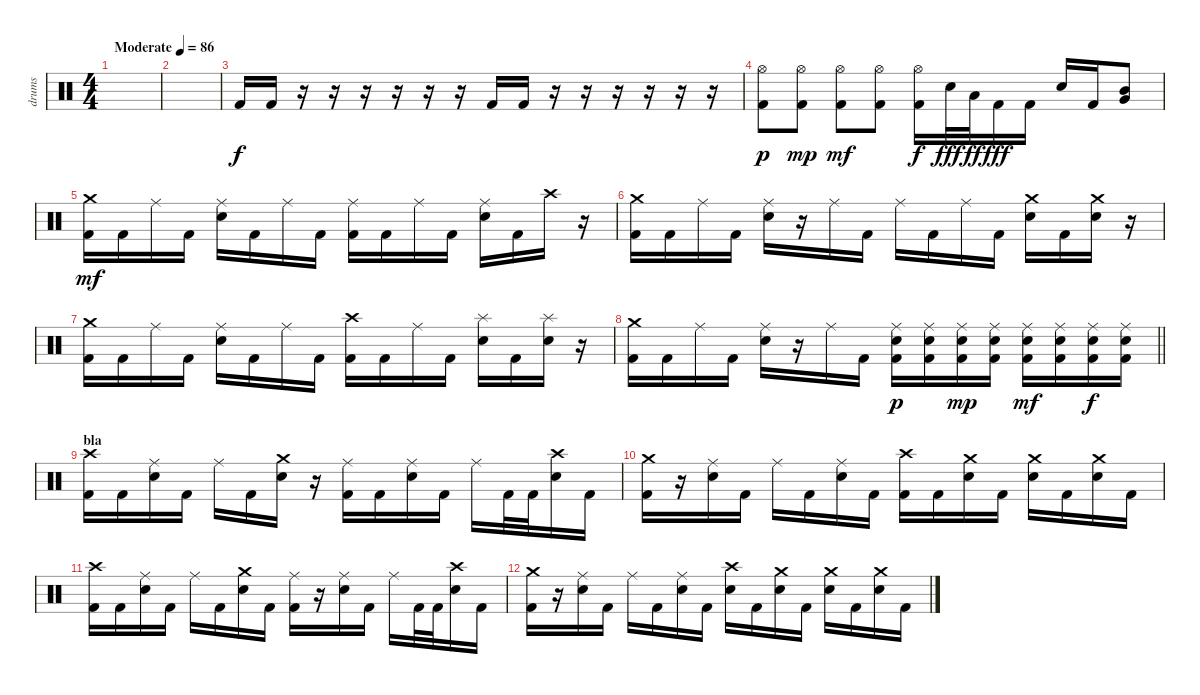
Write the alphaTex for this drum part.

\track ("drums" "drums") {instrument percussion}
\staff {score}
\articulation defaults
\ts (4 4)
\tempo (86 "Moderate")
\clef neutral
\ks c
|
|
"Kick (hit) 2".16 "Kick (hit) 2".16 r.16 r.16 r.16 r.16 r.16 r.16 "Kick (hit) 2".16 "Kick (hit) 2".16 r.16 r.16 r.16 r.16 r.16 r.16 |
("Hi-Hat (open)" "Kick (hit) 2").8{dy p} ("Hi-Hat (open)" "Kick (hit) 2").8{dy mp} ("Hi-Hat (open)" "Kick (hit) 2").8{dy mf} ("Hi-Hat (open)" "Kick (hit) 2").8 ("Hi-Hat (open)" "Kick (hit) 2").16{dy f} "Electric Snare (hit)".32{dy fff} "Low Floor Tom (hit)".32{dy ff} "Kick (hit) 2".16{dy fff} "Kick (hit) 2".16 "Electric Snare (hit)".16 "Kick (hit) 2".16 ("Mid Tom (hit)" "Very Low Tom (hit)").8 |
("Crash medium (hit)" "Kick (hit) 2").16{dy mf} "Kick (hit) 2".16 "Ride (middle)".16 "Kick (hit) 2".16 ("Ride (middle)" "Electric Snare (hit)").16 "Kick (hit) 2".16 "Ride (middle)".16 "Kick (hit) 2".16 ("Ride (middle)" "Kick (hit) 2").16 "Kick (hit) 2".16 "Ride (middle)".16 "Kick (hit) 2".16 ("Ride (middle)" "Electric Snare (hit)").16 "Kick (hit) 2".16 "Crash high (hit)".16 r.16 |
("Crash medium (hit)" "Kick (hit) 2").16 "Kick (hit) 2".16 "Ride (middle)".16 "Kick (hit) 2".16 ("Ride (middle)" "Electric Snare (hit)").16 r.16 "Ride (middle)".16 "Kick (hit) 2".16 "Ride (middle)".16 "Kick (hit) 2".16 "Ride (middle)".16 "Kick (hit) 2".16 ("Crash medium (hit)" "Electric Snare (hit)").16 "Kick (hit) 2".16 ("Crash medium (hit)" "Electric Snare (hit)").16 r.16 |
("Crash medium (hit)" "Kick (hit) 2").16 "Kick (hit) 2".16 "Ride (middle)".16 "Kick (hit) 2".16 ("Ride (middle)" "Electric Snare (hit)").16 "Kick (hit) 2".16 "Ride (middle)".16 "Kick (hit) 2".16 ("Crash high (hit)" "Kick (hit) 2").16 "Kick (hit) 2".16 "Ride (middle)".16 "Kick (hit) 2".16 ("Splash (hit)" "Electric Snare (hit)").16 "Kick (hit) 2".16 ("Splash (hit)" "Electric Snare (hit)").16 r.16 |
\barLineRight lightlight
("Crash medium (hit)" "Kick (hit) 2").16 "Kick (hit) 2".16 "Ride (middle)".16 "Kick (hit) 2".16 ("Ride (middle)" "Electric Snare (hit)").16 r.16 "Ride (middle)".16 "Kick (hit) 2".16 ("Ride (middle)" "Electric Snare (hit)" "Kick (hit) 2").16{dy p} ("Ride (middle)" "Electric Snare (hit)" "Kick (hit) 2").16 ("Ride (middle)" "Electric Snare (hit)" "Kick (hit) 2").16{dy mp} ("Ride (middle)" "Electric Snare (hit)" "Kick (hit) 2").16 ("Ride (middle)" "Electric Snare (hit)" "Kick (hit) 2").16{dy mf} ("Ride (middle)" "Electric Snare (hit)" "Kick (hit) 2").16 ("Ride (middle)" "Electric Snare (hit)" "Kick (hit) 2").16{dy f} ("Ride (middle)" "Electric Snare (hit)" "Kick (hit) 2").16 |
\section ("" "bla")
("Crash high (hit)" "Kick (hit) 2").16 "Kick (hit) 2".16 ("Ride (middle)" "Electric Snare (hit)").16 "Kick (hit) 2".16 "Ride (middle)".16 "Kick (hit) 2".16 ("Crash medium (hit)" "Electric Snare (hit)").16 r.16 ("Ride (middle)" "Kick (hit) 2").16 "Kick (hit) 2".16 ("Ride (middle)" "Electric Snare (hit)").16 "Kick (hit) 2".16 "Ride (middle)".16 "Kick (hit) 2".32 "Kick (hit) 2".32 ("Crash high (hit)" "Electric Snare (hit)").16 "Kick (hit) 2".16 |
("Crash medium (hit)" "Kick (hit) 2").16 r.16 ("Ride (middle)" "Electric Snare (hit)").16 "Kick (hit) 2".16 "Ride (middle)".16 "Kick (hit) 2".16 ("Ride (middle)" "Electric Snare (hit)").16 "Kick (hit) 2".16 ("Crash high (hit)" "Kick (hit) 2").16 "Kick (hit) 2".16 ("Crash medium (hit)" "Electric Snare (hit)").16 "Kick (hit) 2".16 ("Crash medium (hit)" "Electric Snare (hit)").16 "Kick (hit) 2".16 ("Crash medium (hit)" "Electric Snare (hit)").16 "Kick (hit) 2".16 |
("Crash high (hit)" "Kick (hit) 2").16 "Kick (hit) 2".16 ("Ride (middle)" "Electric Snare (hit)").16 "Kick (hit) 2".16 "Ride (middle)".16 "Kick (hit) 2".16 ("Crash medium (hit)" "Electric Snare (hit)").16 "Kick (hit) 2".16 ("Ride (middle)" "Kick (hit) 2").16 r.16 ("Ride (middle)" "Electric Snare (hit)").16 "Kick (hit) 2".16 "Ride (middle)".16 "Kick (hit) 2".32 "Kick (hit) 2".32 ("Crash high (hit)" "Electric Snare (hit)").16 "Kick (hit) 2".16 |
("Crash medium (hit)" "Kick (hit) 2").16 r.16 ("Ride (middle)" "Electric Snare (hit)").16 "Kick (hit) 2".16 "Ride (middle)".16 "Kick (hit) 2".16 ("Ride (middle)" "Electric Snare (hit)").16 "Kick (hit) 2".16 ("Crash high (hit)" "Electric Snare (hit)").16 "Kick (hit) 2".16 ("Crash medium (hit)" "Electric Snare (hit)").16 "Kick (hit) 2".16 ("Crash medium (hit)" "Electric Snare (hit)").16 "Kick (hit) 2".16 ("Crash medium (hit)" "Electric Snare (hit)").16 "Kick (hit) 2".16
